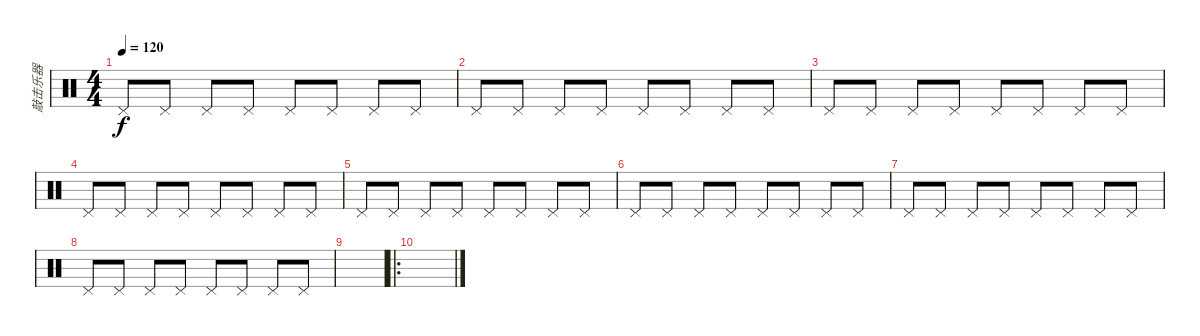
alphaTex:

\track ("敲击乐器" "敲击乐器") {instrument percussion}
\staff {score}
\articulation defaults
\ts (4 4)
\tempo 120
\clef neutral
\ks c "Pedal Hi-Hat (hit)".8{dy f} "Pedal Hi-Hat (hit)".8 "Pedal Hi-Hat (hit)".8 "Pedal Hi-Hat (hit)".8 "Pedal Hi-Hat (hit)".8 "Pedal Hi-Hat (hit)".8 "Pedal Hi-Hat (hit)".8 "Pedal Hi-Hat (hit)".8
|
"Pedal Hi-Hat (hit)".8 "Pedal Hi-Hat (hit)".8 "Pedal Hi-Hat (hit)".8 "Pedal Hi-Hat (hit)".8 "Pedal Hi-Hat (hit)".8 "Pedal Hi-Hat (hit)".8 "Pedal Hi-Hat (hit)".8 "Pedal Hi-Hat (hit)".8 |
"Pedal Hi-Hat (hit)".8 "Pedal Hi-Hat (hit)".8 "Pedal Hi-Hat (hit)".8 "Pedal Hi-Hat (hit)".8 "Pedal Hi-Hat (hit)".8 "Pedal Hi-Hat (hit)".8 "Pedal Hi-Hat (hit)".8 "Pedal Hi-Hat (hit)".8 |
"Pedal Hi-Hat (hit)".8 "Pedal Hi-Hat (hit)".8 "Pedal Hi-Hat (hit)".8 "Pedal Hi-Hat (hit)".8 "Pedal Hi-Hat (hit)".8 "Pedal Hi-Hat (hit)".8 "Pedal Hi-Hat (hit)".8 "Pedal Hi-Hat (hit)".8 |
"Pedal Hi-Hat (hit)".8 "Pedal Hi-Hat (hit)".8 "Pedal Hi-Hat (hit)".8 "Pedal Hi-Hat (hit)".8 "Pedal Hi-Hat (hit)".8 "Pedal Hi-Hat (hit)".8 "Pedal Hi-Hat (hit)".8 "Pedal Hi-Hat (hit)".8 |
"Pedal Hi-Hat (hit)".8 "Pedal Hi-Hat (hit)".8 "Pedal Hi-Hat (hit)".8 "Pedal Hi-Hat (hit)".8 "Pedal Hi-Hat (hit)".8 "Pedal Hi-Hat (hit)".8 "Pedal Hi-Hat (hit)".8 "Pedal Hi-Hat (hit)".8 |
"Pedal Hi-Hat (hit)".8 "Pedal Hi-Hat (hit)".8 "Pedal Hi-Hat (hit)".8 "Pedal Hi-Hat (hit)".8 "Pedal Hi-Hat (hit)".8 "Pedal Hi-Hat (hit)".8 "Pedal Hi-Hat (hit)".8 "Pedal Hi-Hat (hit)".8 |
"Pedal Hi-Hat (hit)".8 "Pedal Hi-Hat (hit)".8 "Pedal Hi-Hat (hit)".8 "Pedal Hi-Hat (hit)".8 "Pedal Hi-Hat (hit)".8 "Pedal Hi-Hat (hit)".8 "Pedal Hi-Hat (hit)".8 "Pedal Hi-Hat (hit)".8 |
|
\ro
